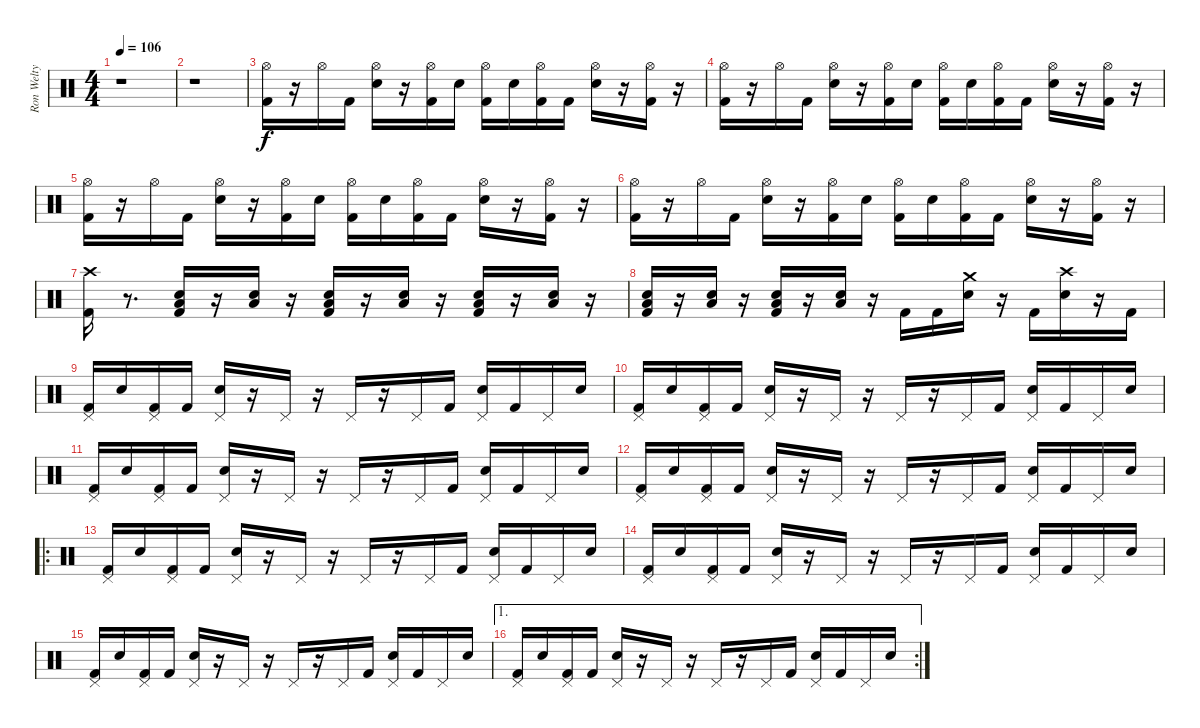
\track ("Ron Welty - Drummer" "Ron Welty ") {instrument percussion}
\staff {score}
\articulation defaults
\ts (4 4)
\tempo 106
\clef neutral
\ks c
r.1{dy f} |
r.1 |
("Hi-Hat (open)" "Kick (hit) 2").16 r.16 "Hi-Hat (open)".16 "Kick (hit) 2".16 ("Hi-Hat (open)" "Electric Snare (hit)").16 r.16 ("Hi-Hat (open)" "Kick (hit) 2").16 "Electric Snare (hit)".16 ("Hi-Hat (open)" "Kick (hit) 2").16 "Electric Snare (hit)".16 ("Hi-Hat (open)" "Kick (hit) 2").16 "Kick (hit) 2".16 ("Hi-Hat (open)" "Electric Snare (hit)").16 r.16 ("Hi-Hat (open)" "Kick (hit) 2").16 r.16 |
("Kick (hit) 2" "Hi-Hat (open)").16 r.16 "Hi-Hat (open)".16 "Kick (hit) 2".16 ("Hi-Hat (open)" "Electric Snare (hit)").16 r.16 ("Hi-Hat (open)" "Kick (hit) 2").16 "Electric Snare (hit)".16 ("Hi-Hat (open)" "Kick (hit) 2").16 "Electric Snare (hit)".16 ("Hi-Hat (open)" "Kick (hit) 2").16 "Kick (hit) 2".16 ("Hi-Hat (open)" "Electric Snare (hit)").16 r.16 ("Hi-Hat (open)" "Kick (hit) 2").16 r.16 |
("Kick (hit) 2" "Hi-Hat (open)").16 r.16 "Hi-Hat (open)".16 "Kick (hit) 2".16 ("Hi-Hat (open)" "Electric Snare (hit)").16 r.16 ("Hi-Hat (open)" "Kick (hit) 2").16 "Electric Snare (hit)".16 ("Hi-Hat (open)" "Kick (hit) 2").16 "Electric Snare (hit)".16 ("Hi-Hat (open)" "Kick (hit) 2").16 "Kick (hit) 2".16 ("Hi-Hat (open)" "Electric Snare (hit)").16 r.16 ("Hi-Hat (open)" "Kick (hit) 2").16 r.16 |
("Kick (hit) 2" "Hi-Hat (open)").16 r.16 "Hi-Hat (open)".16 "Kick (hit) 2".16 ("Hi-Hat (open)" "Electric Snare (hit)").16 r.16 ("Hi-Hat (open)" "Kick (hit) 2").16 "Electric Snare (hit)".16 ("Hi-Hat (open)" "Kick (hit) 2").16 "Electric Snare (hit)".16 ("Hi-Hat (open)" "Kick (hit) 2").16 "Kick (hit) 2".16 ("Hi-Hat (open)" "Electric Snare (hit)").16 r.16 ("Hi-Hat (open)" "Kick (hit) 2").16 r.16 |
("Kick (hit) 2" "Crash high (hit)").16 r.8{d} ("Low Floor Tom (hit)" "Kick (hit) 2" "Electric Snare (hit)").16 r.16 ("Low Floor Tom (hit)" "Electric Snare (hit)").16 r.16 ("Kick (hit) 2" "Low Floor Tom (hit)" "Electric Snare (hit)").16 r.16 ("Low Floor Tom (hit)" "Electric Snare (hit)").16 r.16 ("Kick (hit) 2" "Low Floor Tom (hit)" "Electric Snare (hit)").16 r.16 ("Low Floor Tom (hit)" "Electric Snare (hit)").16 r.16 |
("Kick (hit) 2" "Low Floor Tom (hit)" "Electric Snare (hit)").16 r.16 ("Low Floor Tom (hit)" "Electric Snare (hit)").16 r.16 ("Kick (hit) 2" "Low Floor Tom (hit)" "Electric Snare (hit)").16 r.16 ("Low Floor Tom (hit)" "Electric Snare (hit)").16 r.16 "Kick (hit) 2".16 "Kick (hit) 2".16 ("Electric Snare (hit)" "Crash medium (hit)").16 r.16 "Kick (hit) 2".16 ("Electric Snare (hit)" "Crash high (hit)").16 r.16 "Kick (hit) 2".16 |
("Kick (hit) 2" "Pedal Hi-Hat (hit)").16 "Electric Snare (hit)".16 ("Kick (hit) 2" "Pedal Hi-Hat (hit)").16 "Kick (hit) 2".16 ("Electric Snare (hit)" "Pedal Hi-Hat (hit)").16 r.16 "Pedal Hi-Hat (hit)".16 r.16 "Pedal Hi-Hat (hit)".16 r.16 "Pedal Hi-Hat (hit)".16 "Kick (hit) 2".16 ("Electric Snare (hit)" "Pedal Hi-Hat (hit)").16 "Kick (hit) 2".16 "Pedal Hi-Hat (hit)".16 "Electric Snare (hit)".16 |
("Kick (hit) 2" "Pedal Hi-Hat (hit)").16 "Electric Snare (hit)".16 ("Kick (hit) 2" "Pedal Hi-Hat (hit)").16 "Kick (hit) 2".16 ("Electric Snare (hit)" "Pedal Hi-Hat (hit)").16 r.16 "Pedal Hi-Hat (hit)".16 r.16 "Pedal Hi-Hat (hit)".16 r.16 "Pedal Hi-Hat (hit)".16 "Kick (hit) 2".16 ("Electric Snare (hit)" "Pedal Hi-Hat (hit)").16 "Kick (hit) 2".16 "Pedal Hi-Hat (hit)".16 "Electric Snare (hit)".16 |
("Kick (hit) 2" "Pedal Hi-Hat (hit)").16 "Electric Snare (hit)".16 ("Kick (hit) 2" "Pedal Hi-Hat (hit)").16 "Kick (hit) 2".16 ("Electric Snare (hit)" "Pedal Hi-Hat (hit)").16 r.16 "Pedal Hi-Hat (hit)".16 r.16 "Pedal Hi-Hat (hit)".16 r.16 "Pedal Hi-Hat (hit)".16 "Kick (hit) 2".16 ("Electric Snare (hit)" "Pedal Hi-Hat (hit)").16 "Kick (hit) 2".16 "Pedal Hi-Hat (hit)".16 "Electric Snare (hit)".16 |
("Kick (hit) 2" "Pedal Hi-Hat (hit)").16 "Electric Snare (hit)".16 ("Kick (hit) 2" "Pedal Hi-Hat (hit)").16 "Kick (hit) 2".16 ("Electric Snare (hit)" "Pedal Hi-Hat (hit)").16 r.16 "Pedal Hi-Hat (hit)".16 r.16 "Pedal Hi-Hat (hit)".16 r.16 "Pedal Hi-Hat (hit)".16 "Kick (hit) 2".16 ("Electric Snare (hit)" "Pedal Hi-Hat (hit)").16 "Kick (hit) 2".16 "Pedal Hi-Hat (hit)".16 "Electric Snare (hit)".16 |
\ro
("Kick (hit) 2" "Pedal Hi-Hat (hit)").16 "Electric Snare (hit)".16 ("Kick (hit) 2" "Pedal Hi-Hat (hit)").16 "Kick (hit) 2".16 ("Electric Snare (hit)" "Pedal Hi-Hat (hit)").16 r.16 "Pedal Hi-Hat (hit)".16 r.16 "Pedal Hi-Hat (hit)".16 r.16 "Pedal Hi-Hat (hit)".16 "Kick (hit) 2".16 ("Electric Snare (hit)" "Pedal Hi-Hat (hit)").16 "Kick (hit) 2".16 "Pedal Hi-Hat (hit)".16 "Electric Snare (hit)".16 |
("Kick (hit) 2" "Pedal Hi-Hat (hit)").16 "Electric Snare (hit)".16 ("Kick (hit) 2" "Pedal Hi-Hat (hit)").16 "Kick (hit) 2".16 ("Electric Snare (hit)" "Pedal Hi-Hat (hit)").16 r.16 "Pedal Hi-Hat (hit)".16 r.16 "Pedal Hi-Hat (hit)".16 r.16 "Pedal Hi-Hat (hit)".16 "Kick (hit) 2".16 ("Electric Snare (hit)" "Pedal Hi-Hat (hit)").16 "Kick (hit) 2".16 "Pedal Hi-Hat (hit)".16 "Electric Snare (hit)".16 |
("Kick (hit) 2" "Pedal Hi-Hat (hit)").16 "Electric Snare (hit)".16 ("Kick (hit) 2" "Pedal Hi-Hat (hit)").16 "Kick (hit) 2".16 ("Electric Snare (hit)" "Pedal Hi-Hat (hit)").16 r.16 "Pedal Hi-Hat (hit)".16 r.16 "Pedal Hi-Hat (hit)".16 r.16 "Pedal Hi-Hat (hit)".16 "Kick (hit) 2".16 ("Electric Snare (hit)" "Pedal Hi-Hat (hit)").16 "Kick (hit) 2".16 "Pedal Hi-Hat (hit)".16 "Electric Snare (hit)".16 |
\ae 1
\rc 2
("Kick (hit) 2" "Pedal Hi-Hat (hit)").16 "Electric Snare (hit)".16 ("Kick (hit) 2" "Pedal Hi-Hat (hit)").16 "Kick (hit) 2".16 ("Electric Snare (hit)" "Pedal Hi-Hat (hit)").16 r.16 "Pedal Hi-Hat (hit)".16 r.16 "Pedal Hi-Hat (hit)".16 r.16 "Pedal Hi-Hat (hit)".16 "Kick (hit) 2".16 ("Electric Snare (hit)" "Pedal Hi-Hat (hit)").16 "Kick (hit) 2".16 "Pedal Hi-Hat (hit)".16 "Electric Snare (hit)".16
